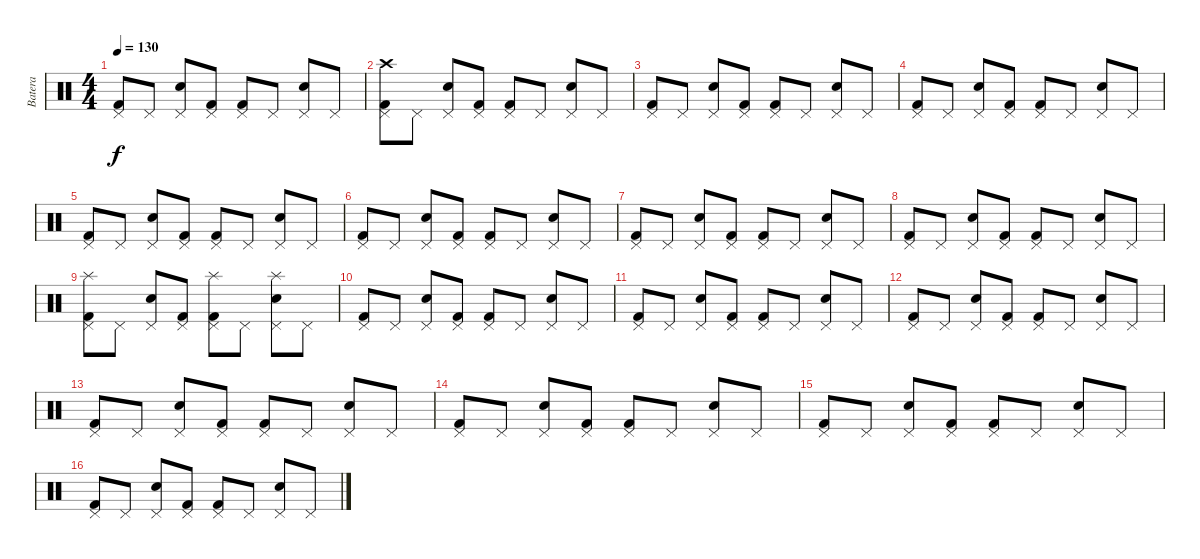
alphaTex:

\track ("Batera" "Batera") {instrument percussion}
\staff {score}
\articulation defaults
\ts (4 4)
\tempo 130
\clef neutral
\ks c
("Pedal Hi-Hat (hit)" "Kick (hit) 2").8{dy f} "Pedal Hi-Hat (hit)".8 ("Pedal Hi-Hat (hit)" "Snare (hit) 2").8 ("Pedal Hi-Hat (hit)" "Kick (hit) 2").8 ("Pedal Hi-Hat (hit)" "Kick (hit) 2").8 "Pedal Hi-Hat (hit)".8 ("Pedal Hi-Hat (hit)" "Snare (hit) 2").8 "Pedal Hi-Hat (hit)".8 |
("Pedal Hi-Hat (hit)" "Crash high (hit)" "Kick (hit) 2").8 "Pedal Hi-Hat (hit)".8 ("Pedal Hi-Hat (hit)" "Snare (hit) 2").8 ("Pedal Hi-Hat (hit)" "Kick (hit) 2").8 ("Pedal Hi-Hat (hit)" "Kick (hit) 2").8 "Pedal Hi-Hat (hit)".8 ("Pedal Hi-Hat (hit)" "Snare (hit) 2").8 "Pedal Hi-Hat (hit)".8 |
("Pedal Hi-Hat (hit)" "Kick (hit) 2").8 "Pedal Hi-Hat (hit)".8 ("Pedal Hi-Hat (hit)" "Snare (hit) 2").8 ("Pedal Hi-Hat (hit)" "Kick (hit) 2").8 ("Pedal Hi-Hat (hit)" "Kick (hit) 2").8 "Pedal Hi-Hat (hit)".8 ("Pedal Hi-Hat (hit)" "Snare (hit) 2").8 "Pedal Hi-Hat (hit)".8 |
("Pedal Hi-Hat (hit)" "Kick (hit) 2").8 "Pedal Hi-Hat (hit)".8 ("Pedal Hi-Hat (hit)" "Snare (hit) 2").8 ("Pedal Hi-Hat (hit)" "Kick (hit) 2").8 ("Pedal Hi-Hat (hit)" "Kick (hit) 2").8 "Pedal Hi-Hat (hit)".8 ("Pedal Hi-Hat (hit)" "Snare (hit) 2").8 "Pedal Hi-Hat (hit)".8 |
("Pedal Hi-Hat (hit)" "Kick (hit) 2").8 "Pedal Hi-Hat (hit)".8 ("Pedal Hi-Hat (hit)" "Snare (hit) 2").8 ("Pedal Hi-Hat (hit)" "Kick (hit) 2").8 ("Pedal Hi-Hat (hit)" "Kick (hit) 2").8 "Pedal Hi-Hat (hit)".8 ("Pedal Hi-Hat (hit)" "Snare (hit) 2").8 "Pedal Hi-Hat (hit)".8 |
("Pedal Hi-Hat (hit)" "Kick (hit) 2").8 "Pedal Hi-Hat (hit)".8 ("Pedal Hi-Hat (hit)" "Snare (hit) 2").8 ("Pedal Hi-Hat (hit)" "Kick (hit) 2").8 ("Pedal Hi-Hat (hit)" "Kick (hit) 2").8 "Pedal Hi-Hat (hit)".8 ("Pedal Hi-Hat (hit)" "Snare (hit) 2").8 "Pedal Hi-Hat (hit)".8 |
("Pedal Hi-Hat (hit)" "Kick (hit) 2").8 "Pedal Hi-Hat (hit)".8 ("Pedal Hi-Hat (hit)" "Snare (hit) 2").8 ("Pedal Hi-Hat (hit)" "Kick (hit) 2").8 ("Pedal Hi-Hat (hit)" "Kick (hit) 2").8 "Pedal Hi-Hat (hit)".8 ("Pedal Hi-Hat (hit)" "Snare (hit) 2").8 "Pedal Hi-Hat (hit)".8 |
("Pedal Hi-Hat (hit)" "Kick (hit) 2").8 "Pedal Hi-Hat (hit)".8 ("Pedal Hi-Hat (hit)" "Snare (hit) 2").8 ("Pedal Hi-Hat (hit)" "Kick (hit) 2").8 ("Pedal Hi-Hat (hit)" "Kick (hit) 2").8 "Pedal Hi-Hat (hit)".8 ("Pedal Hi-Hat (hit)" "Snare (hit) 2").8 "Pedal Hi-Hat (hit)".8 |
("Pedal Hi-Hat (hit)" "Splash (hit)" "Kick (hit) 2").8 "Pedal Hi-Hat (hit)".8 ("Pedal Hi-Hat (hit)" "Snare (hit) 2").8 ("Pedal Hi-Hat (hit)" "Kick (hit) 2").8 ("Pedal Hi-Hat (hit)" "Splash (hit)" "Kick (hit) 2").8 "Pedal Hi-Hat (hit)".8 ("Pedal Hi-Hat (hit)" "Splash (hit)" "Snare (hit) 2").8 "Pedal Hi-Hat (hit)".8 |
("Pedal Hi-Hat (hit)" "Kick (hit) 2").8 "Pedal Hi-Hat (hit)".8 ("Pedal Hi-Hat (hit)" "Snare (hit) 2").8 ("Pedal Hi-Hat (hit)" "Kick (hit) 2").8 ("Pedal Hi-Hat (hit)" "Kick (hit) 2").8 "Pedal Hi-Hat (hit)".8 ("Pedal Hi-Hat (hit)" "Snare (hit) 2").8 "Pedal Hi-Hat (hit)".8 |
("Pedal Hi-Hat (hit)" "Kick (hit) 2").8 "Pedal Hi-Hat (hit)".8 ("Pedal Hi-Hat (hit)" "Snare (hit) 2").8 ("Pedal Hi-Hat (hit)" "Kick (hit) 2").8 ("Pedal Hi-Hat (hit)" "Kick (hit) 2").8 "Pedal Hi-Hat (hit)".8 ("Pedal Hi-Hat (hit)" "Snare (hit) 2").8 "Pedal Hi-Hat (hit)".8 |
("Pedal Hi-Hat (hit)" "Kick (hit) 2").8 "Pedal Hi-Hat (hit)".8 ("Pedal Hi-Hat (hit)" "Snare (hit) 2").8 ("Pedal Hi-Hat (hit)" "Kick (hit) 2").8 ("Pedal Hi-Hat (hit)" "Kick (hit) 2").8 "Pedal Hi-Hat (hit)".8 ("Pedal Hi-Hat (hit)" "Snare (hit) 2").8 "Pedal Hi-Hat (hit)".8 |
("Pedal Hi-Hat (hit)" "Kick (hit) 2").8 "Pedal Hi-Hat (hit)".8 ("Pedal Hi-Hat (hit)" "Snare (hit) 2").8 ("Pedal Hi-Hat (hit)" "Kick (hit) 2").8 ("Pedal Hi-Hat (hit)" "Kick (hit) 2").8 "Pedal Hi-Hat (hit)".8 ("Pedal Hi-Hat (hit)" "Snare (hit) 2").8 "Pedal Hi-Hat (hit)".8 |
("Pedal Hi-Hat (hit)" "Kick (hit) 2").8 "Pedal Hi-Hat (hit)".8 ("Pedal Hi-Hat (hit)" "Snare (hit) 2").8 ("Pedal Hi-Hat (hit)" "Kick (hit) 2").8 ("Pedal Hi-Hat (hit)" "Kick (hit) 2").8 "Pedal Hi-Hat (hit)".8 ("Pedal Hi-Hat (hit)" "Snare (hit) 2").8 "Pedal Hi-Hat (hit)".8 |
("Pedal Hi-Hat (hit)" "Kick (hit) 2").8 "Pedal Hi-Hat (hit)".8 ("Pedal Hi-Hat (hit)" "Snare (hit) 2").8 ("Pedal Hi-Hat (hit)" "Kick (hit) 2").8 ("Pedal Hi-Hat (hit)" "Kick (hit) 2").8 "Pedal Hi-Hat (hit)".8 ("Pedal Hi-Hat (hit)" "Snare (hit) 2").8 "Pedal Hi-Hat (hit)".8 |
("Pedal Hi-Hat (hit)" "Kick (hit) 2").8 "Pedal Hi-Hat (hit)".8 ("Pedal Hi-Hat (hit)" "Snare (hit) 2").8 ("Pedal Hi-Hat (hit)" "Kick (hit) 2").8 ("Pedal Hi-Hat (hit)" "Kick (hit) 2").8 "Pedal Hi-Hat (hit)".8 ("Pedal Hi-Hat (hit)" "Snare (hit) 2").8 "Pedal Hi-Hat (hit)".8
